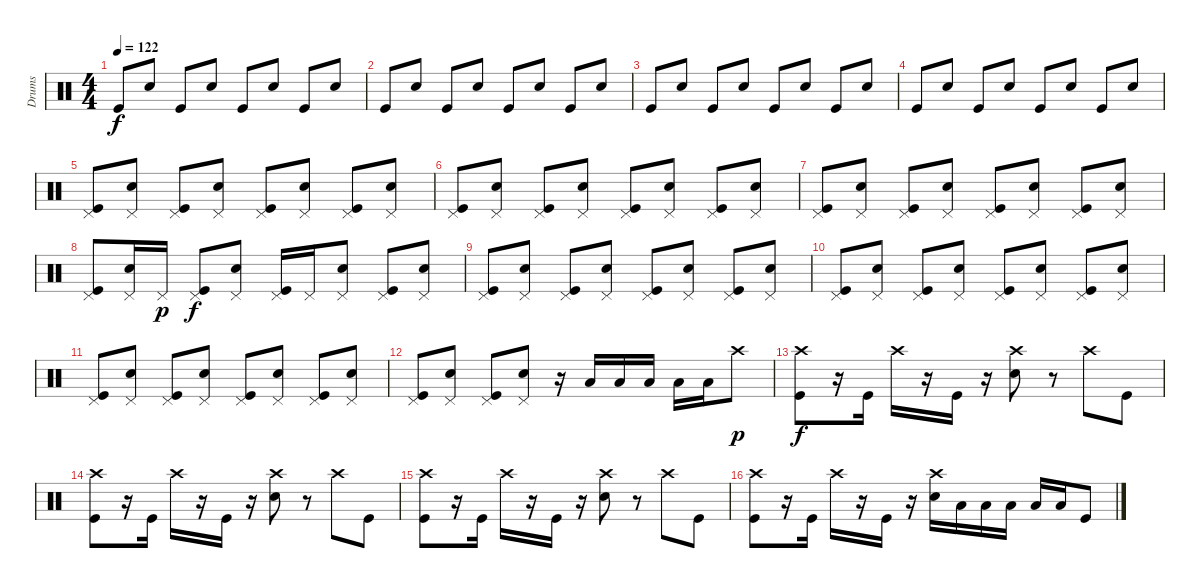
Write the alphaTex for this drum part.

\track ("Drums" "Drums") {instrument percussion}
\staff {score}
\articulation defaults
\ts (4 4)
\tempo 122
\clef neutral
\ks c "Kick (hit)".8{dy f} "Snare (hit) 2".8 "Kick (hit)".8 "Snare (hit) 2".8 "Kick (hit)".8 "Snare (hit) 2".8 "Kick (hit)".8 "Snare (hit) 2".8
|
"Kick (hit)".8 "Snare (hit) 2".8 "Kick (hit)".8 "Snare (hit) 2".8 "Kick (hit)".8 "Snare (hit) 2".8 "Kick (hit)".8 "Snare (hit) 2".8 |
"Kick (hit)".8 "Snare (hit) 2".8 "Kick (hit)".8 "Snare (hit) 2".8 "Kick (hit)".8 "Snare (hit) 2".8 "Kick (hit)".8 "Snare (hit) 2".8 |
"Kick (hit)".8 "Snare (hit) 2".8 "Kick (hit)".8 "Snare (hit) 2".8 "Kick (hit)".8 "Snare (hit) 2".8 "Kick (hit)".8 "Snare (hit) 2".8 |
("Pedal Hi-Hat (hit)" "Kick (hit)").8 ("Pedal Hi-Hat (hit)" "Snare (hit) 2").8 ("Pedal Hi-Hat (hit)" "Kick (hit)").8 ("Pedal Hi-Hat (hit)" "Snare (hit) 2").8 ("Pedal Hi-Hat (hit)" "Kick (hit)").8 ("Pedal Hi-Hat (hit)" "Snare (hit) 2").8 ("Pedal Hi-Hat (hit)" "Kick (hit)").8 ("Pedal Hi-Hat (hit)" "Snare (hit) 2").8 |
("Pedal Hi-Hat (hit)" "Kick (hit)").8 ("Pedal Hi-Hat (hit)" "Snare (hit) 2").8 ("Pedal Hi-Hat (hit)" "Kick (hit)").8 ("Pedal Hi-Hat (hit)" "Snare (hit) 2").8 ("Pedal Hi-Hat (hit)" "Kick (hit)").8 ("Pedal Hi-Hat (hit)" "Snare (hit) 2").8 ("Pedal Hi-Hat (hit)" "Kick (hit)").8 ("Pedal Hi-Hat (hit)" "Snare (hit) 2").8 |
("Pedal Hi-Hat (hit)" "Kick (hit)").8 ("Pedal Hi-Hat (hit)" "Snare (hit) 2").8 ("Pedal Hi-Hat (hit)" "Kick (hit)").8 ("Pedal Hi-Hat (hit)" "Snare (hit) 2").8 ("Pedal Hi-Hat (hit)" "Kick (hit)").8 ("Pedal Hi-Hat (hit)" "Snare (hit) 2").8 ("Pedal Hi-Hat (hit)" "Kick (hit)").8 ("Pedal Hi-Hat (hit)" "Snare (hit) 2").8 |
("Pedal Hi-Hat (hit)" "Kick (hit)").8 ("Pedal Hi-Hat (hit)" "Snare (hit) 2").16 "Pedal Hi-Hat (hit)".16{dy p} ("Pedal Hi-Hat (hit)" "Kick (hit)").8{dy f} ("Pedal Hi-Hat (hit)" "Snare (hit) 2").8 ("Pedal Hi-Hat (hit)" "Kick (hit)").16 "Pedal Hi-Hat (hit)".16 ("Pedal Hi-Hat (hit)" "Snare (hit) 2").8 ("Pedal Hi-Hat (hit)" "Kick (hit)").8 ("Pedal Hi-Hat (hit)" "Snare (hit) 2").8 |
("Pedal Hi-Hat (hit)" "Kick (hit)").8 ("Pedal Hi-Hat (hit)" "Snare (hit) 2").8 ("Pedal Hi-Hat (hit)" "Kick (hit)").8 ("Pedal Hi-Hat (hit)" "Snare (hit) 2").8 ("Pedal Hi-Hat (hit)" "Kick (hit)").8 ("Pedal Hi-Hat (hit)" "Snare (hit) 2").8 ("Pedal Hi-Hat (hit)" "Kick (hit)").8 ("Pedal Hi-Hat (hit)" "Snare (hit) 2").8 |
("Pedal Hi-Hat (hit)" "Kick (hit)").8 ("Pedal Hi-Hat (hit)" "Snare (hit) 2").8 ("Pedal Hi-Hat (hit)" "Kick (hit)").8 ("Pedal Hi-Hat (hit)" "Snare (hit) 2").8 ("Pedal Hi-Hat (hit)" "Kick (hit)").8 ("Pedal Hi-Hat (hit)" "Snare (hit) 2").8 ("Pedal Hi-Hat (hit)" "Kick (hit)").8 ("Pedal Hi-Hat (hit)" "Snare (hit) 2").8 |
("Pedal Hi-Hat (hit)" "Kick (hit)").8 ("Pedal Hi-Hat (hit)" "Snare (hit) 2").8 ("Pedal Hi-Hat (hit)" "Kick (hit)").8 ("Pedal Hi-Hat (hit)" "Snare (hit) 2").8 ("Pedal Hi-Hat (hit)" "Kick (hit)").8 ("Pedal Hi-Hat (hit)" "Snare (hit) 2").8 ("Pedal Hi-Hat (hit)" "Kick (hit)").8 ("Pedal Hi-Hat (hit)" "Snare (hit) 2").8 |
("Pedal Hi-Hat (hit)" "Kick (hit)").8 ("Pedal Hi-Hat (hit)" "Snare (hit) 2").8 ("Pedal Hi-Hat (hit)" "Kick (hit)").8 ("Pedal Hi-Hat (hit)" "Snare (hit) 2").8 r.16 "Low Tom (hit)".16 "Low Tom (hit)".16 "Low Tom (hit)".16 "Low Floor Tom (hit)".16 "Low Floor Tom (hit)".16 "Crash high (hit)".8{dy p} |
("Crash high (hit)" "Kick (hit)").8{dy f} r.16 "Kick (hit)".16 "Crash high (hit)".16 r.16 "Kick (hit)".16 r.16 ("Crash high (hit)" "Snare (hit) 2").8 r.8 "Crash high (hit)".8 "Kick (hit)".8 |
("Crash high (hit)" "Kick (hit)").8 r.16 "Kick (hit)".16 "Crash high (hit)".16 r.16 "Kick (hit)".16 r.16 ("Crash high (hit)" "Snare (hit) 2").8 r.8 "Crash high (hit)".8 "Kick (hit)".8 |
("Crash high (hit)" "Kick (hit)").8 r.16 "Kick (hit)".16 "Crash high (hit)".16 r.16 "Kick (hit)".16 r.16 ("Crash high (hit)" "Snare (hit) 2").8 r.8 "Crash high (hit)".8 "Kick (hit)".8 |
("Crash high (hit)" "Kick (hit)").8 r.16 "Kick (hit)".16 "Crash high (hit)".16 r.16 "Kick (hit)".16 r.16 ("Crash high (hit)" "Snare (hit) 2").16 "Low Tom (hit)".16 "Low Tom (hit)".16 "Low Tom (hit)".16 "Low Floor Tom (hit)".16 "Low Floor Tom (hit)".16 "Kick (hit)".8
